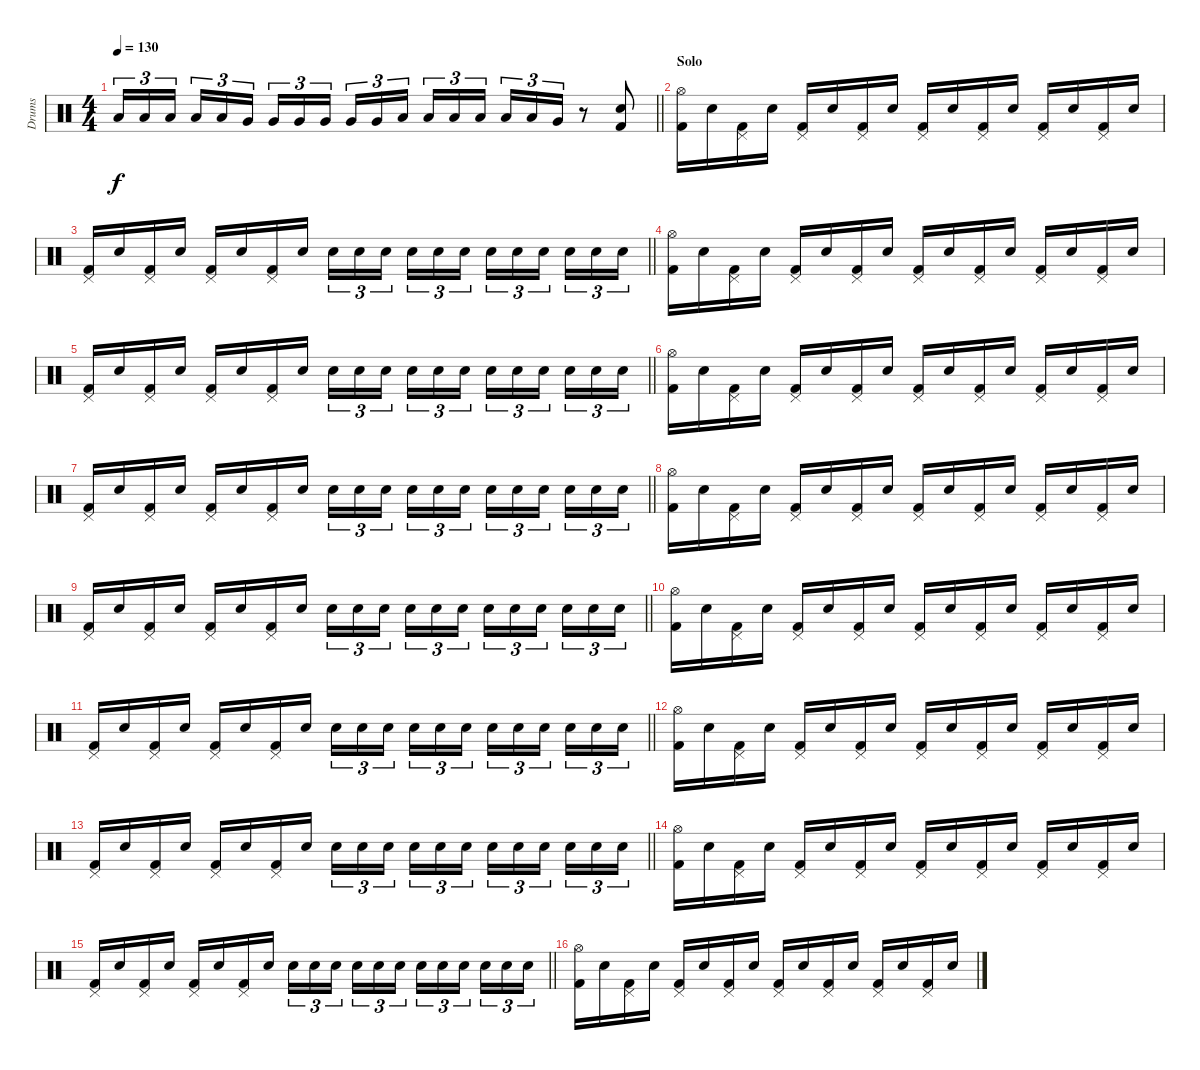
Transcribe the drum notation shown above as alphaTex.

\track ("Drums" "Drums") {instrument percussion}
\staff {score}
\articulation defaults
\ts (4 4)
\tempo 130
\clef neutral
\barLineRight lightlight
\ks c "Low Tom (hit)".16{tu (3 2) dy f} "Low Tom (hit)".16{tu (3 2)} "Low Tom (hit)".16{tu (3 2) beam splitsecondary} "Low Tom (hit)".16{tu (3 2)} "Low Tom (hit)".16{tu (3 2)} "Very Low Tom (hit)".16{tu (3 2)} "Very Low Tom (hit)".16{tu (3 2)} "Very Low Tom (hit)".16{tu (3 2)} "Very Low Tom (hit)".16{tu (3 2) beam splitsecondary} "Very Low Tom (hit)".16{tu (3 2)} "Very Low Tom (hit)".16{tu (3 2)} "Low Floor Tom (hit)".16{tu (3 2)} "Low Floor Tom (hit)".16{tu (3 2)} "Low Floor Tom (hit)".16{tu (3 2)} "Low Floor Tom (hit)".16{tu (3 2) beam splitsecondary} "Low Floor Tom (hit)".16{tu (3 2)} "Low Floor Tom (hit)".16{tu (3 2)} "Very Low Tom (hit)".16{tu (3 2)}
r.8 ("Snare (hit) 2" "Kick (hit) 2").8 |
\section ("" "Solo")
("Hi-Hat (open)" "Kick (hit) 2").16 "Snare (hit) 2".16 ("Pedal Hi-Hat (hit)" "Kick (hit) 2").16 "Snare (hit) 2".16 ("Pedal Hi-Hat (hit)" "Kick (hit) 2").16 "Snare (hit) 2".16 ("Pedal Hi-Hat (hit)" "Kick (hit) 2").16 "Snare (hit) 2".16 ("Pedal Hi-Hat (hit)" "Kick (hit) 2").16 "Snare (hit) 2".16 ("Pedal Hi-Hat (hit)" "Kick (hit) 2").16 "Snare (hit) 2".16 ("Pedal Hi-Hat (hit)" "Kick (hit) 2").16 "Snare (hit) 2".16 ("Pedal Hi-Hat (hit)" "Kick (hit) 2").16 "Snare (hit) 2".16 |
\barLineRight lightlight
("Pedal Hi-Hat (hit)" "Kick (hit) 2").16 "Snare (hit) 2".16 ("Pedal Hi-Hat (hit)" "Kick (hit) 2").16 "Snare (hit) 2".16 ("Pedal Hi-Hat (hit)" "Kick (hit) 2").16 "Snare (hit) 2".16 ("Pedal Hi-Hat (hit)" "Kick (hit) 2").16 "Snare (hit) 2".16 "Snare (hit) 2".16{tu (3 2)} "Snare (hit) 2".16{tu (3 2)} "Snare (hit) 2".16{tu (3 2) beam splitsecondary} "Snare (hit) 2".16{tu (3 2)} "Snare (hit) 2".16{tu (3 2)} "Snare (hit) 2".16{tu (3 2)} "Snare (hit) 2".16{tu (3 2)} "Snare (hit) 2".16{tu (3 2)} "Snare (hit) 2".16{tu (3 2) beam splitsecondary} "Snare (hit) 2".16{tu (3 2)} "Snare (hit) 2".16{tu (3 2)} "Snare (hit) 2".16{tu (3 2)} |
("Hi-Hat (open)" "Kick (hit) 2").16 "Snare (hit) 2".16 ("Pedal Hi-Hat (hit)" "Kick (hit) 2").16 "Snare (hit) 2".16 ("Pedal Hi-Hat (hit)" "Kick (hit) 2").16 "Snare (hit) 2".16 ("Pedal Hi-Hat (hit)" "Kick (hit) 2").16 "Snare (hit) 2".16 ("Pedal Hi-Hat (hit)" "Kick (hit) 2").16 "Snare (hit) 2".16 ("Pedal Hi-Hat (hit)" "Kick (hit) 2").16 "Snare (hit) 2".16 ("Pedal Hi-Hat (hit)" "Kick (hit) 2").16 "Snare (hit) 2".16 ("Pedal Hi-Hat (hit)" "Kick (hit) 2").16 "Snare (hit) 2".16 |
\barLineRight lightlight
("Pedal Hi-Hat (hit)" "Kick (hit) 2").16 "Snare (hit) 2".16 ("Pedal Hi-Hat (hit)" "Kick (hit) 2").16 "Snare (hit) 2".16 ("Pedal Hi-Hat (hit)" "Kick (hit) 2").16 "Snare (hit) 2".16 ("Pedal Hi-Hat (hit)" "Kick (hit) 2").16 "Snare (hit) 2".16 "Snare (hit) 2".16{tu (3 2)} "Snare (hit) 2".16{tu (3 2)} "Snare (hit) 2".16{tu (3 2) beam splitsecondary} "Snare (hit) 2".16{tu (3 2)} "Snare (hit) 2".16{tu (3 2)} "Snare (hit) 2".16{tu (3 2)} "Snare (hit) 2".16{tu (3 2)} "Snare (hit) 2".16{tu (3 2)} "Snare (hit) 2".16{tu (3 2) beam splitsecondary} "Snare (hit) 2".16{tu (3 2)} "Snare (hit) 2".16{tu (3 2)} "Snare (hit) 2".16{tu (3 2)} |
("Hi-Hat (open)" "Kick (hit) 2").16 "Snare (hit) 2".16 ("Pedal Hi-Hat (hit)" "Kick (hit) 2").16 "Snare (hit) 2".16 ("Pedal Hi-Hat (hit)" "Kick (hit) 2").16 "Snare (hit) 2".16 ("Pedal Hi-Hat (hit)" "Kick (hit) 2").16 "Snare (hit) 2".16 ("Pedal Hi-Hat (hit)" "Kick (hit) 2").16 "Snare (hit) 2".16 ("Pedal Hi-Hat (hit)" "Kick (hit) 2").16 "Snare (hit) 2".16 ("Pedal Hi-Hat (hit)" "Kick (hit) 2").16 "Snare (hit) 2".16 ("Pedal Hi-Hat (hit)" "Kick (hit) 2").16 "Snare (hit) 2".16 |
\barLineRight lightlight
("Pedal Hi-Hat (hit)" "Kick (hit) 2").16 "Snare (hit) 2".16 ("Pedal Hi-Hat (hit)" "Kick (hit) 2").16 "Snare (hit) 2".16 ("Pedal Hi-Hat (hit)" "Kick (hit) 2").16 "Snare (hit) 2".16 ("Pedal Hi-Hat (hit)" "Kick (hit) 2").16 "Snare (hit) 2".16 "Snare (hit) 2".16{tu (3 2)} "Snare (hit) 2".16{tu (3 2)} "Snare (hit) 2".16{tu (3 2) beam splitsecondary} "Snare (hit) 2".16{tu (3 2)} "Snare (hit) 2".16{tu (3 2)} "Snare (hit) 2".16{tu (3 2)} "Snare (hit) 2".16{tu (3 2)} "Snare (hit) 2".16{tu (3 2)} "Snare (hit) 2".16{tu (3 2) beam splitsecondary} "Snare (hit) 2".16{tu (3 2)} "Snare (hit) 2".16{tu (3 2)} "Snare (hit) 2".16{tu (3 2)} |
("Hi-Hat (open)" "Kick (hit) 2").16 "Snare (hit) 2".16 ("Pedal Hi-Hat (hit)" "Kick (hit) 2").16 "Snare (hit) 2".16 ("Pedal Hi-Hat (hit)" "Kick (hit) 2").16 "Snare (hit) 2".16 ("Pedal Hi-Hat (hit)" "Kick (hit) 2").16 "Snare (hit) 2".16 ("Pedal Hi-Hat (hit)" "Kick (hit) 2").16 "Snare (hit) 2".16 ("Pedal Hi-Hat (hit)" "Kick (hit) 2").16 "Snare (hit) 2".16 ("Pedal Hi-Hat (hit)" "Kick (hit) 2").16 "Snare (hit) 2".16 ("Pedal Hi-Hat (hit)" "Kick (hit) 2").16 "Snare (hit) 2".16 |
\barLineRight lightlight
("Pedal Hi-Hat (hit)" "Kick (hit) 2").16 "Snare (hit) 2".16 ("Pedal Hi-Hat (hit)" "Kick (hit) 2").16 "Snare (hit) 2".16 ("Pedal Hi-Hat (hit)" "Kick (hit) 2").16 "Snare (hit) 2".16 ("Pedal Hi-Hat (hit)" "Kick (hit) 2").16 "Snare (hit) 2".16 "Snare (hit) 2".16{tu (3 2)} "Snare (hit) 2".16{tu (3 2)} "Snare (hit) 2".16{tu (3 2) beam splitsecondary} "Snare (hit) 2".16{tu (3 2)} "Snare (hit) 2".16{tu (3 2)} "Snare (hit) 2".16{tu (3 2)} "Snare (hit) 2".16{tu (3 2)} "Snare (hit) 2".16{tu (3 2)} "Snare (hit) 2".16{tu (3 2) beam splitsecondary} "Snare (hit) 2".16{tu (3 2)} "Snare (hit) 2".16{tu (3 2)} "Snare (hit) 2".16{tu (3 2)} |
("Hi-Hat (open)" "Kick (hit) 2").16 "Snare (hit) 2".16 ("Pedal Hi-Hat (hit)" "Kick (hit) 2").16 "Snare (hit) 2".16 ("Pedal Hi-Hat (hit)" "Kick (hit) 2").16 "Snare (hit) 2".16 ("Pedal Hi-Hat (hit)" "Kick (hit) 2").16 "Snare (hit) 2".16 ("Pedal Hi-Hat (hit)" "Kick (hit) 2").16 "Snare (hit) 2".16 ("Pedal Hi-Hat (hit)" "Kick (hit) 2").16 "Snare (hit) 2".16 ("Pedal Hi-Hat (hit)" "Kick (hit) 2").16 "Snare (hit) 2".16 ("Pedal Hi-Hat (hit)" "Kick (hit) 2").16 "Snare (hit) 2".16 |
\barLineRight lightlight
("Pedal Hi-Hat (hit)" "Kick (hit) 2").16 "Snare (hit) 2".16 ("Pedal Hi-Hat (hit)" "Kick (hit) 2").16 "Snare (hit) 2".16 ("Pedal Hi-Hat (hit)" "Kick (hit) 2").16 "Snare (hit) 2".16 ("Pedal Hi-Hat (hit)" "Kick (hit) 2").16 "Snare (hit) 2".16 "Snare (hit) 2".16{tu (3 2)} "Snare (hit) 2".16{tu (3 2)} "Snare (hit) 2".16{tu (3 2) beam splitsecondary} "Snare (hit) 2".16{tu (3 2)} "Snare (hit) 2".16{tu (3 2)} "Snare (hit) 2".16{tu (3 2)} "Snare (hit) 2".16{tu (3 2)} "Snare (hit) 2".16{tu (3 2)} "Snare (hit) 2".16{tu (3 2) beam splitsecondary} "Snare (hit) 2".16{tu (3 2)} "Snare (hit) 2".16{tu (3 2)} "Snare (hit) 2".16{tu (3 2)} |
("Hi-Hat (open)" "Kick (hit) 2").16 "Snare (hit) 2".16 ("Pedal Hi-Hat (hit)" "Kick (hit) 2").16 "Snare (hit) 2".16 ("Pedal Hi-Hat (hit)" "Kick (hit) 2").16 "Snare (hit) 2".16 ("Pedal Hi-Hat (hit)" "Kick (hit) 2").16 "Snare (hit) 2".16 ("Pedal Hi-Hat (hit)" "Kick (hit) 2").16 "Snare (hit) 2".16 ("Pedal Hi-Hat (hit)" "Kick (hit) 2").16 "Snare (hit) 2".16 ("Pedal Hi-Hat (hit)" "Kick (hit) 2").16 "Snare (hit) 2".16 ("Pedal Hi-Hat (hit)" "Kick (hit) 2").16 "Snare (hit) 2".16 |
\barLineRight lightlight
("Pedal Hi-Hat (hit)" "Kick (hit) 2").16 "Snare (hit) 2".16 ("Pedal Hi-Hat (hit)" "Kick (hit) 2").16 "Snare (hit) 2".16 ("Pedal Hi-Hat (hit)" "Kick (hit) 2").16 "Snare (hit) 2".16 ("Pedal Hi-Hat (hit)" "Kick (hit) 2").16 "Snare (hit) 2".16 "Snare (hit) 2".16{tu (3 2)} "Snare (hit) 2".16{tu (3 2)} "Snare (hit) 2".16{tu (3 2) beam splitsecondary} "Snare (hit) 2".16{tu (3 2)} "Snare (hit) 2".16{tu (3 2)} "Snare (hit) 2".16{tu (3 2)} "Snare (hit) 2".16{tu (3 2)} "Snare (hit) 2".16{tu (3 2)} "Snare (hit) 2".16{tu (3 2) beam splitsecondary} "Snare (hit) 2".16{tu (3 2)} "Snare (hit) 2".16{tu (3 2)} "Snare (hit) 2".16{tu (3 2)} |
("Hi-Hat (open)" "Kick (hit) 2").16 "Snare (hit) 2".16 ("Pedal Hi-Hat (hit)" "Kick (hit) 2").16 "Snare (hit) 2".16 ("Pedal Hi-Hat (hit)" "Kick (hit) 2").16 "Snare (hit) 2".16 ("Pedal Hi-Hat (hit)" "Kick (hit) 2").16 "Snare (hit) 2".16 ("Pedal Hi-Hat (hit)" "Kick (hit) 2").16 "Snare (hit) 2".16 ("Pedal Hi-Hat (hit)" "Kick (hit) 2").16 "Snare (hit) 2".16 ("Pedal Hi-Hat (hit)" "Kick (hit) 2").16 "Snare (hit) 2".16 ("Pedal Hi-Hat (hit)" "Kick (hit) 2").16 "Snare (hit) 2".16 |
\barLineRight lightlight
("Pedal Hi-Hat (hit)" "Kick (hit) 2").16 "Snare (hit) 2".16 ("Pedal Hi-Hat (hit)" "Kick (hit) 2").16 "Snare (hit) 2".16 ("Pedal Hi-Hat (hit)" "Kick (hit) 2").16 "Snare (hit) 2".16 ("Pedal Hi-Hat (hit)" "Kick (hit) 2").16 "Snare (hit) 2".16 "Snare (hit) 2".16{tu (3 2)} "Snare (hit) 2".16{tu (3 2)} "Snare (hit) 2".16{tu (3 2) beam splitsecondary} "Snare (hit) 2".16{tu (3 2)} "Snare (hit) 2".16{tu (3 2)} "Snare (hit) 2".16{tu (3 2)} "Snare (hit) 2".16{tu (3 2)} "Snare (hit) 2".16{tu (3 2)} "Snare (hit) 2".16{tu (3 2) beam splitsecondary} "Snare (hit) 2".16{tu (3 2)} "Snare (hit) 2".16{tu (3 2)} "Snare (hit) 2".16{tu (3 2)} |
("Hi-Hat (open)" "Kick (hit) 2").16 "Snare (hit) 2".16 ("Pedal Hi-Hat (hit)" "Kick (hit) 2").16 "Snare (hit) 2".16 ("Pedal Hi-Hat (hit)" "Kick (hit) 2").16 "Snare (hit) 2".16 ("Pedal Hi-Hat (hit)" "Kick (hit) 2").16 "Snare (hit) 2".16 ("Pedal Hi-Hat (hit)" "Kick (hit) 2").16 "Snare (hit) 2".16 ("Pedal Hi-Hat (hit)" "Kick (hit) 2").16 "Snare (hit) 2".16 ("Pedal Hi-Hat (hit)" "Kick (hit) 2").16 "Snare (hit) 2".16 ("Pedal Hi-Hat (hit)" "Kick (hit) 2").16 "Snare (hit) 2".16
